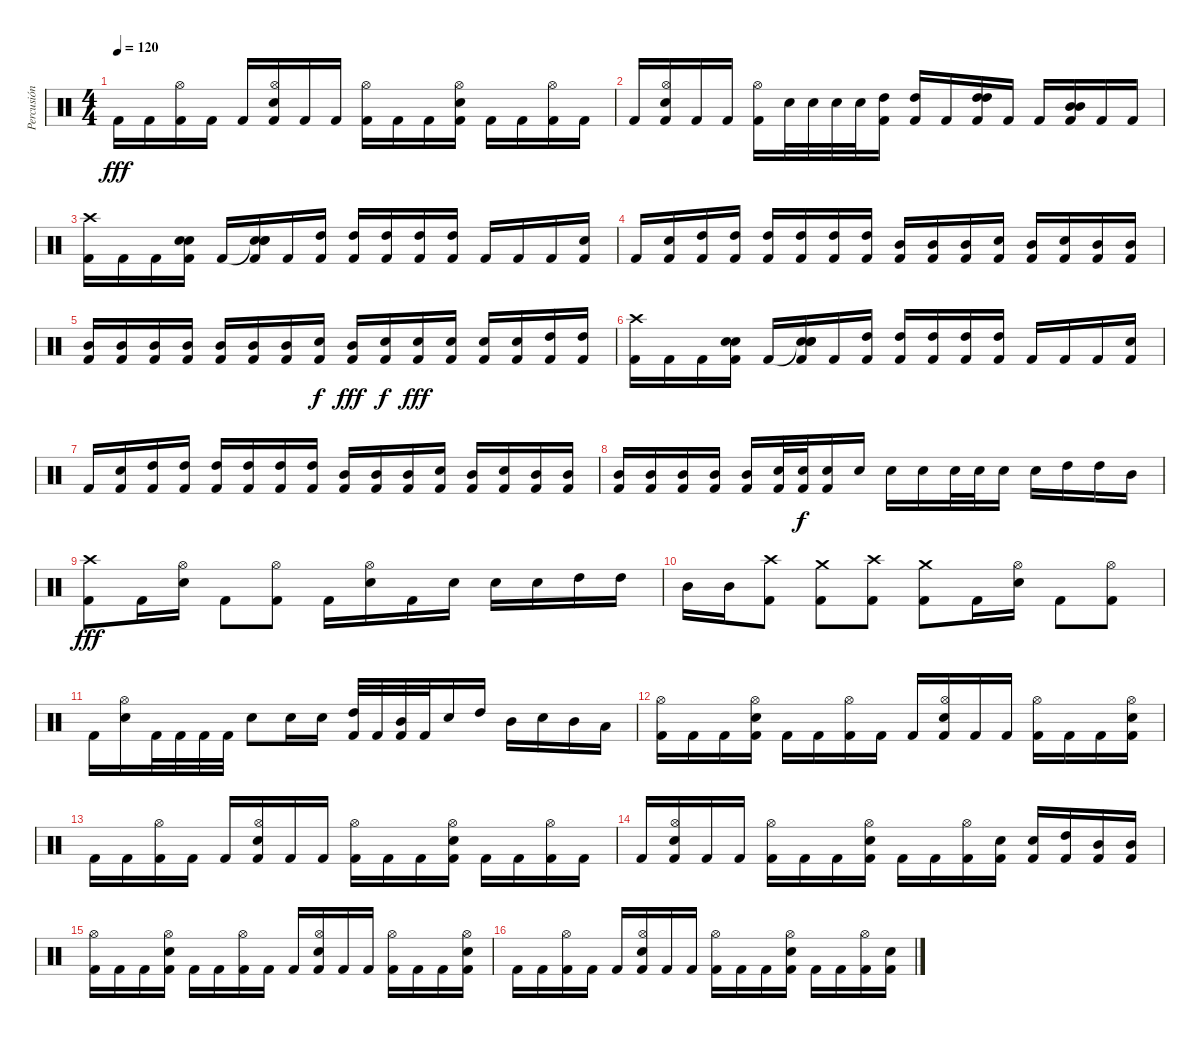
\track ("Percusión" "Percusión") {instrument percussion}
\staff {score}
\articulation defaults
\ts (4 4)
\tempo 120
\clef neutral
\ks c "Kick (hit) 2".16{dy fff} "Kick (hit) 2".16
("Hi-Hat (open)" "Kick (hit) 2").16 "Kick (hit) 2".16 "Kick (hit) 2".16 ("Hi-Hat (open)" "Electric Snare (hit)" "Kick (hit) 2").16 "Kick (hit) 2".16 "Kick (hit) 2".16 ("Hi-Hat (open)" "Kick (hit) 2").16 "Kick (hit) 2".16 "Kick (hit) 2".16 ("Hi-Hat (open)" "Electric Snare (hit)" "Kick (hit) 2").16 "Kick (hit) 2".16 "Kick (hit) 2".16 ("Hi-Hat (open)" "Kick (hit) 2").16 "Kick (hit) 2".16 |
"Kick (hit) 2".16 ("Hi-Hat (open)" "Electric Snare (hit)" "Kick (hit) 2").16 "Kick (hit) 2".16 "Kick (hit) 2".16 ("Hi-Hat (open)" "Kick (hit) 2").16 "Electric Snare (hit)".32 "Electric Snare (hit)".32 "Electric Snare (hit)".32 "Electric Snare (hit)".32 ("High Tom (hit)" "Kick (hit) 2").16 ("High Tom (hit)" "Kick (hit) 2").16 "Kick (hit) 2".16 ("High Tom (hit)" "High Tom (hit)" "Kick (hit) 2").16 "Kick (hit) 2".16 "Kick (hit) 2".16 ("Mid Tom (hit)" "Mid Tom (hit)" "Kick (hit) 2").16 "Kick (hit) 2".16 "Kick (hit) 2".16 |
("Crash high (hit)" "Kick (hit) 2").16 "Kick (hit) 2".16 "Kick (hit) 2".16 ("Electric Snare (hit)" "Electric Snare (hit)" "Kick (hit) 2").16 "Kick (hit) 2".16 ("Snare (hit)"{t} "Electric Snare (hit)" "Electric Snare (hit)" "Kick (hit) 2").16 "Kick (hit) 2".16 ("High Tom (hit)" "Kick (hit) 2").16 ("High Tom (hit)" "Kick (hit) 2").16 ("High Tom (hit)" "Kick (hit) 2").16 ("High Tom (hit)" "Kick (hit) 2").16 ("High Tom (hit)" "Kick (hit) 2").16 "Kick (hit) 2".16 "Kick (hit) 2".16 "Kick (hit) 2".16 ("Electric Snare (hit)" "Kick (hit) 2").16 |
"Kick (hit) 2".16 ("Electric Snare (hit)" "Kick (hit) 2").16 ("High Tom (hit)" "Kick (hit) 2").16 ("High Tom (hit)" "Kick (hit) 2").16 ("High Tom (hit)" "Kick (hit) 2").16 ("High Tom (hit)" "Kick (hit) 2").16 ("High Tom (hit)" "Kick (hit) 2").16 ("High Tom (hit)" "Kick (hit) 2").16 ("Mid Tom (hit)" "Kick (hit) 2").16 ("Mid Tom (hit)" "Kick (hit) 2").16 ("Mid Tom (hit)" "Kick (hit) 2").16 ("Electric Snare (hit)" "Kick (hit) 2").16 ("Mid Tom (hit)" "Kick (hit) 2").16 ("Electric Snare (hit)" "Kick (hit) 2").16 ("Mid Tom (hit)" "Kick (hit) 2").16 ("Mid Tom (hit)" "Kick (hit) 2").16 |
("Mid Tom (hit)" "Kick (hit) 2").16 ("Mid Tom (hit)" "Kick (hit) 2").16 ("Mid Tom (hit)" "Kick (hit) 2").16 ("Mid Tom (hit)" "Kick (hit) 2").16 ("Mid Tom (hit)" "Kick (hit) 2").16 ("Mid Tom (hit)" "Kick (hit) 2").16 ("Mid Tom (hit)" "Kick (hit) 2").16 ("Electric Snare (hit)" "Kick (hit) 2").16{dy f} ("Mid Tom (hit)" "Kick (hit) 2").16{dy fff} ("Electric Snare (hit)" "Kick (hit) 2").16{dy f} ("Electric Snare (hit)" "Kick (hit) 2").16{dy fff} ("Electric Snare (hit)" "Kick (hit) 2").16 ("Electric Snare (hit)" "Kick (hit) 2").16 ("Electric Snare (hit)" "Kick (hit) 2").16 ("High Tom (hit)" "Kick (hit) 2").16 ("High Tom (hit)" "Kick (hit) 2").16 |
("Crash high (hit)" "Kick (hit) 2").16 "Kick (hit) 2".16 "Kick (hit) 2".16 ("Electric Snare (hit)" "Electric Snare (hit)" "Kick (hit) 2").16 "Kick (hit) 2".16 ("Snare (hit)"{t} "Electric Snare (hit)" "Electric Snare (hit)" "Kick (hit) 2").16 "Kick (hit) 2".16 ("High Tom (hit)" "Kick (hit) 2").16 ("High Tom (hit)" "Kick (hit) 2").16 ("High Tom (hit)" "Kick (hit) 2").16 ("High Tom (hit)" "Kick (hit) 2").16 ("High Tom (hit)" "Kick (hit) 2").16 "Kick (hit) 2".16 "Kick (hit) 2".16 "Kick (hit) 2".16 ("Electric Snare (hit)" "Kick (hit) 2").16 |
"Kick (hit) 2".16 ("Electric Snare (hit)" "Kick (hit) 2").16 ("High Tom (hit)" "Kick (hit) 2").16 ("High Tom (hit)" "Kick (hit) 2").16 ("High Tom (hit)" "Kick (hit) 2").16 ("High Tom (hit)" "Kick (hit) 2").16 ("High Tom (hit)" "Kick (hit) 2").16 ("High Tom (hit)" "Kick (hit) 2").16 ("Mid Tom (hit)" "Kick (hit) 2").16 ("Mid Tom (hit)" "Kick (hit) 2").16 ("Mid Tom (hit)" "Kick (hit) 2").16 ("Electric Snare (hit)" "Kick (hit) 2").16 ("Mid Tom (hit)" "Kick (hit) 2").16 ("Electric Snare (hit)" "Kick (hit) 2").16 ("Mid Tom (hit)" "Kick (hit) 2").16 ("Mid Tom (hit)" "Kick (hit) 2").16 |
("Mid Tom (hit)" "Kick (hit) 2").16 ("Mid Tom (hit)" "Kick (hit) 2").16 ("Mid Tom (hit)" "Kick (hit) 2").16 ("Mid Tom (hit)" "Kick (hit) 2").16 ("Mid Tom (hit)" "Kick (hit) 2").16 ("Electric Snare (hit)" "Kick (hit) 2").32 ("Electric Snare (hit)" "Kick (hit) 2").32{dy f} ("Electric Snare (hit)" "Kick (hit) 2").16 "Electric Snare (hit)".16 "Electric Snare (hit)".16 "Electric Snare (hit)".16 "Electric Snare (hit)".32 "Electric Snare (hit)".32 "Electric Snare (hit)".16 "Electric Snare (hit)".16 "High Tom (hit)".16 "High Tom (hit)".16 "Mid Tom (hit)".16 |
("Crash high (hit)" "Kick (hit) 2").8{dy fff} "Kick (hit) 2".16 ("Hi-Hat (open)" "Electric Snare (hit)").16 "Kick (hit) 2".8 ("Hi-Hat (open)" "Kick (hit) 2").8 "Kick (hit) 2".16 ("Hi-Hat (open)" "Electric Snare (hit)").16 "Kick (hit) 2".16 "Electric Snare (hit)".16 "Electric Snare (hit)".16 "Electric Snare (hit)".16 "High Tom (hit)".16 "High Tom (hit)".16 |
"Mid Tom (hit)".16 "Mid Tom (hit)".16 ("Crash high (hit)" "Kick (hit) 2").8 ("Crash medium (hit)" "Kick (hit) 2").8 ("Crash high (hit)" "Kick (hit) 2").8 ("Crash medium (hit)" "Kick (hit) 2").8 "Kick (hit) 2".16 ("Hi-Hat (open)" "Electric Snare (hit)").16 "Kick (hit) 2".8 ("Hi-Hat (open)" "Kick (hit) 2").8 |
"Kick (hit) 2".16 ("Hi-Hat (open)" "Electric Snare (hit)").16 "Kick (hit) 2".32 "Kick (hit) 2".32 "Kick (hit) 2".32 "Kick (hit) 2".32 "Electric Snare (hit)".8 "Electric Snare (hit)".16 "Electric Snare (hit)".16 ("High Tom (hit)" "Kick (hit) 2").32 "Kick (hit) 2".32 ("Mid Tom (hit)" "Kick (hit) 2").32 "Kick (hit) 2".32 "Electric Snare (hit)".16 "High Tom (hit)".16 "Mid Tom (hit)".16 "Electric Snare (hit)".16 "Mid Tom (hit)".16 "Low Tom (hit)".16 |
("Hi-Hat (open)" "Kick (hit) 2").16 "Kick (hit) 2".16 "Kick (hit) 2".16 ("Hi-Hat (open)" "Electric Snare (hit)" "Kick (hit) 2").16 "Kick (hit) 2".16 "Kick (hit) 2".16 ("Hi-Hat (open)" "Kick (hit) 2").16 "Kick (hit) 2".16 "Kick (hit) 2".16 ("Hi-Hat (open)" "Electric Snare (hit)" "Kick (hit) 2").16 "Kick (hit) 2".16 "Kick (hit) 2".16 ("Hi-Hat (open)" "Kick (hit) 2").16 "Kick (hit) 2".16 "Kick (hit) 2".16 ("Hi-Hat (open)" "Electric Snare (hit)" "Kick (hit) 2").16 |
"Kick (hit) 2".16 "Kick (hit) 2".16 ("Hi-Hat (open)" "Kick (hit) 2").16 "Kick (hit) 2".16 "Kick (hit) 2".16 ("Hi-Hat (open)" "Electric Snare (hit)" "Kick (hit) 2").16 "Kick (hit) 2".16 "Kick (hit) 2".16 ("Hi-Hat (open)" "Kick (hit) 2").16 "Kick (hit) 2".16 "Kick (hit) 2".16 ("Hi-Hat (open)" "Electric Snare (hit)" "Kick (hit) 2").16 "Kick (hit) 2".16 "Kick (hit) 2".16 ("Hi-Hat (open)" "Kick (hit) 2").16 "Kick (hit) 2".16 |
"Kick (hit) 2".16 ("Hi-Hat (open)" "Electric Snare (hit)" "Kick (hit) 2").16 "Kick (hit) 2".16 "Kick (hit) 2".16 ("Hi-Hat (open)" "Kick (hit) 2").16 "Kick (hit) 2".16 "Kick (hit) 2".16 ("Hi-Hat (open)" "Electric Snare (hit)" "Kick (hit) 2").16 "Kick (hit) 2".16 "Kick (hit) 2".16 ("Hi-Hat (open)" "Kick (hit) 2").16 ("Electric Snare (hit)" "Kick (hit) 2").16 ("Electric Snare (hit)" "Kick (hit) 2").16 ("High Tom (hit)" "Kick (hit) 2").16 ("Mid Tom (hit)" "Kick (hit) 2").16 ("Mid Tom (hit)" "Kick (hit) 2").16 |
("Hi-Hat (open)" "Kick (hit) 2").16 "Kick (hit) 2".16 "Kick (hit) 2".16 ("Hi-Hat (open)" "Electric Snare (hit)" "Kick (hit) 2").16 "Kick (hit) 2".16 "Kick (hit) 2".16 ("Hi-Hat (open)" "Kick (hit) 2").16 "Kick (hit) 2".16 "Kick (hit) 2".16 ("Hi-Hat (open)" "Electric Snare (hit)" "Kick (hit) 2").16 "Kick (hit) 2".16 "Kick (hit) 2".16 ("Hi-Hat (open)" "Kick (hit) 2").16 "Kick (hit) 2".16 "Kick (hit) 2".16 ("Hi-Hat (open)" "Electric Snare (hit)" "Kick (hit) 2").16 |
"Kick (hit) 2".16 "Kick (hit) 2".16 ("Hi-Hat (open)" "Kick (hit) 2").16 "Kick (hit) 2".16 "Kick (hit) 2".16 ("Hi-Hat (open)" "Electric Snare (hit)" "Kick (hit) 2").16 "Kick (hit) 2".16 "Kick (hit) 2".16 ("Hi-Hat (open)" "Kick (hit) 2").16 "Kick (hit) 2".16 "Kick (hit) 2".16 ("Hi-Hat (open)" "Electric Snare (hit)" "Kick (hit) 2").16 "Kick (hit) 2".16 "Kick (hit) 2".16 ("Hi-Hat (open)" "Kick (hit) 2").16 ("Electric Snare (hit)" "Kick (hit) 2").16
